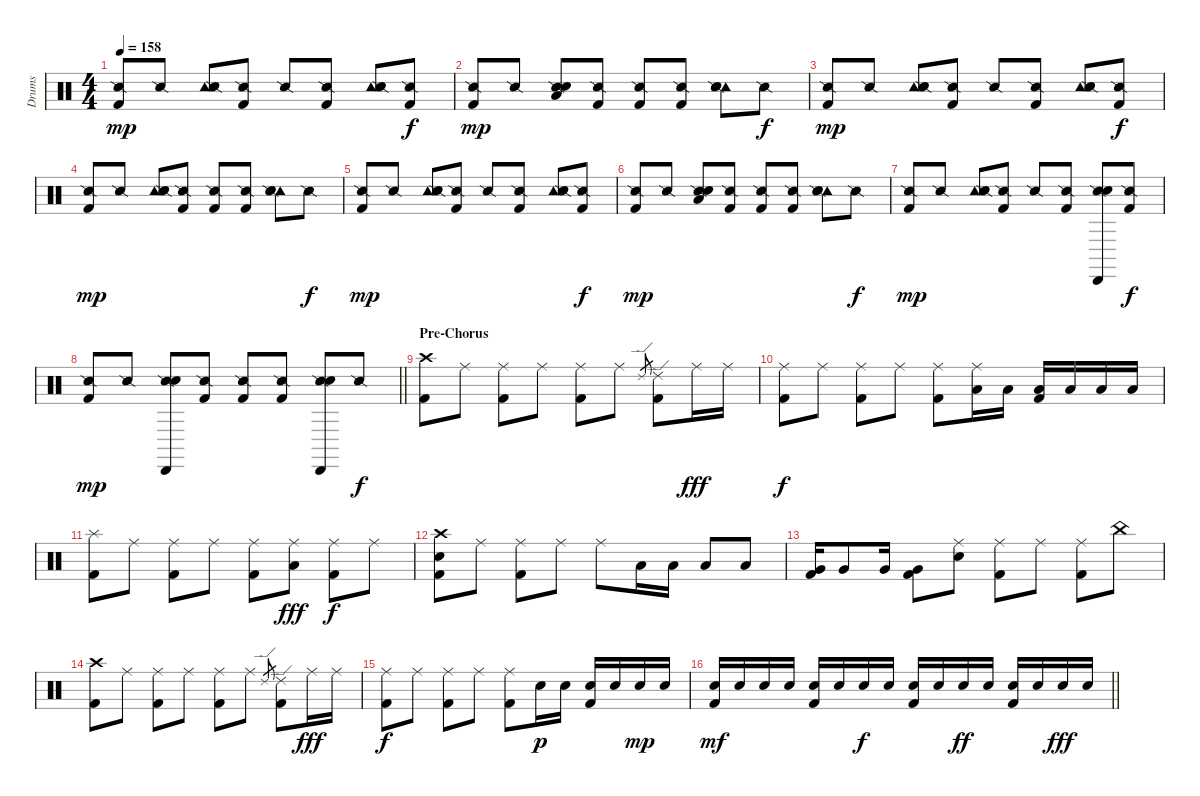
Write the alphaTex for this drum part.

\track ("Drums" "Drums") {instrument percussion}
\staff {score}
\articulation defaults
\ts (4 4)
\tempo 158
\clef neutral
\ks c
("Snare (side stick) 2" "Kick (hit) 2").8{dy mp} "Snare (side stick) 2".8 ("Tambourine (hit)" "Snare (side stick) 2" "Electric Snare (hit)").8 ("Snare (side stick) 2" "Kick (hit) 2").8 "Snare (side stick) 2".8 ("Snare (side stick) 2" "Kick (hit) 2").8 ("Tambourine (hit)" "Snare (side stick) 2" "Electric Snare (hit)").8 ("Snare (side stick) 2" "Kick (hit) 2").8{dy f} |
("Snare (side stick) 2" "Kick (hit) 2").8{dy mp} "Snare (side stick) 2".8 ("Low Tom (hit)" "Snare (side stick) 2" "Electric Snare (hit)").8 ("Snare (side stick) 2" "Kick (hit) 2").8 ("Snare (side stick) 2" "Kick (hit) 2").8 ("Snare (side stick) 2" "Kick (hit) 2").8 ("Tambourine (hit)" "Snare (side stick) 2" "Electric Snare (hit)").8 "Snare (side stick) 2".8{dy f} |
("Snare (side stick) 2" "Kick (hit) 2").8{dy mp} "Snare (side stick) 2".8 ("Tambourine (hit)" "Snare (side stick) 2" "Electric Snare (hit)").8 ("Snare (side stick) 2" "Kick (hit) 2").8 "Snare (side stick) 2".8 ("Snare (side stick) 2" "Kick (hit) 2").8 ("Tambourine (hit)" "Snare (side stick) 2" "Electric Snare (hit)").8 ("Snare (side stick) 2" "Kick (hit) 2").8{dy f} |
("Snare (side stick) 2" "Kick (hit) 2").8{dy mp} "Snare (side stick) 2".8 ("Tambourine (hit)" "Snare (side stick) 2" "Electric Snare (hit)").8 ("Snare (side stick) 2" "Kick (hit) 2").8 ("Snare (side stick) 2" "Kick (hit) 2").8 ("Snare (side stick) 2" "Kick (hit) 2").8 ("Tambourine (hit)" "Snare (side stick) 2" "Electric Snare (hit)").8 "Snare (side stick) 2".8{dy f} |
("Snare (side stick) 2" "Kick (hit) 2").8{dy mp} "Snare (side stick) 2".8 ("Tambourine (hit)" "Snare (side stick) 2" "Electric Snare (hit)").8 ("Snare (side stick) 2" "Kick (hit) 2").8 "Snare (side stick) 2".8 ("Snare (side stick) 2" "Kick (hit) 2").8 ("Tambourine (hit)" "Snare (side stick) 2" "Electric Snare (hit)").8 ("Snare (side stick) 2" "Kick (hit) 2").8{dy f} |
("Snare (side stick) 2" "Kick (hit) 2").8{dy mp} "Snare (side stick) 2".8 ("Low Tom (hit)" "Snare (side stick) 2" "Electric Snare (hit)").8 ("Snare (side stick) 2" "Kick (hit) 2").8 ("Snare (side stick) 2" "Kick (hit) 2").8 ("Snare (side stick) 2" "Kick (hit) 2").8 ("Tambourine (hit)" "Snare (side stick) 2" "Electric Snare (hit)").8 "Snare (side stick) 2".8{dy f} |
("Snare (side stick) 2" "Kick (hit) 2").8{dy mp} "Snare (side stick) 2".8 ("Tambourine (hit)" "Snare (side stick) 2" "Electric Snare (hit)").8 ("Snare (side stick) 2" "Kick (hit) 2").8 "Snare (side stick) 2".8 ("Snare (side stick) 2" "Kick (hit) 2").8 ("Cabasa (hit)" "Snare (side stick) 2" "Electric Snare (hit)").8 ("Snare (side stick) 2" "Kick (hit) 2").8{dy f} |
\barLineRight lightlight
("Snare (side stick) 2" "Kick (hit) 2").8{dy mp} "Snare (side stick) 2".8 ("Cabasa (hit)" "Snare (side stick) 2" "Electric Snare (hit)").8 ("Snare (side stick) 2" "Kick (hit) 2").8 ("Snare (side stick) 2" "Kick (hit) 2").8 ("Snare (side stick) 2" "Kick (hit) 2").8 ("Cabasa (hit)" "Snare (side stick) 2" "Electric Snare (hit)").8 "Snare (side stick) 2".8{dy f} |
\section ("" "Pre-Chorus")
("Crash high (hit)" "Kick (hit) 2").8 "Ride (middle)".8 ("Ride (middle)" "Kick (hit) 2").8 "Ride (middle)".8 ("Ride (middle)" "Kick (hit) 2").8 "Ride (middle)".8 "Ride (edge) 2".8{gr} ("Ride (edge) 2" "Kick (hit) 2").8 "Ride (middle)".16{dy fff} "Ride (middle)".16 |
("Ride (middle)" "Kick (hit) 2").8{dy f} "Ride (middle)".8 ("Ride (middle)" "Kick (hit) 2").8 "Ride (middle)".8 ("Ride (middle)" "Kick (hit) 2").8 ("Ride (middle)" "Low Tom (hit)").16 "Low Tom (hit)".16 ("Low Tom (hit)" "Kick (hit) 2").16 "Low Tom (hit)".16 "Low Tom (hit)".16 "Low Tom (hit)".16 |
("Splash (hit)" "Kick (hit) 2").8 "Ride (middle)".8 ("Ride (middle)" "Kick (hit) 2").8 "Ride (middle)".8 ("Ride (middle)" "Kick (hit) 2").8 ("Ride (middle)" "Low Tom (hit)").8{dy fff} ("Ride (middle)" "Kick (hit) 2").8{dy f} "Ride (middle)".8 |
("Crash high (hit)" "Electric Snare (hit)" "Kick (hit) 2").8 "Ride (middle)".8 ("Ride (middle)" "Kick (hit) 2").8 "Ride (middle)".8 "Ride (middle)".8 "Low Tom (hit)".16 "Low Tom (hit)".16 "Low Tom (hit)".8 "Low Tom (hit)".8 |
("Very Low Tom (hit)" "Kick (hit) 2").16 "Very Low Tom (hit)".8 "Very Low Tom (hit)".16 ("Very Low Tom (hit)" "Kick (hit) 2").8 ("Ride (middle)" "Electric Snare (hit)").8 ("Ride (middle)" "Kick (hit) 2").8 "Ride (middle)".8 ("Ride (middle)" "Kick (hit) 2").8 "China (hit)".8 |
("Crash high (hit)" "Kick (hit) 2").8 "Ride (middle)".8 ("Ride (middle)" "Kick (hit) 2").8 "Ride (middle)".8 ("Ride (middle)" "Kick (hit) 2").8 "Ride (middle)".8 "Ride (edge) 2".8{gr} ("Ride (edge) 2" "Kick (hit) 2").8 "Ride (middle)".16{dy fff} "Ride (middle)".16 |
("Ride (middle)" "Kick (hit) 2").8{dy f} "Ride (middle)".8 ("Ride (middle)" "Kick (hit) 2").8 "Ride (middle)".8 ("Ride (middle)" "Kick (hit) 2").8 "Electric Snare (hit)".16{dy p} "Electric Snare (hit)".16 ("Electric Snare (hit)" "Kick (hit) 2").16 "Electric Snare (hit)".16 "Electric Snare (hit)".16{dy mp} "Electric Snare (hit)".16 |
\barLineRight lightlight
("Electric Snare (hit)" "Kick (hit) 2").16{dy mf} "Electric Snare (hit)".16 "Electric Snare (hit)".16 "Electric Snare (hit)".16 ("Electric Snare (hit)" "Kick (hit) 2").16 "Electric Snare (hit)".16 "Electric Snare (hit)".16{dy f} "Electric Snare (hit)".16 ("Electric Snare (hit)" "Kick (hit) 2").16 "Electric Snare (hit)".16 "Electric Snare (hit)".16{dy ff} "Electric Snare (hit)".16 ("Electric Snare (hit)" "Kick (hit) 2").16 "Electric Snare (hit)".16 "Electric Snare (hit)".16{dy fff} "Electric Snare (hit)".16
